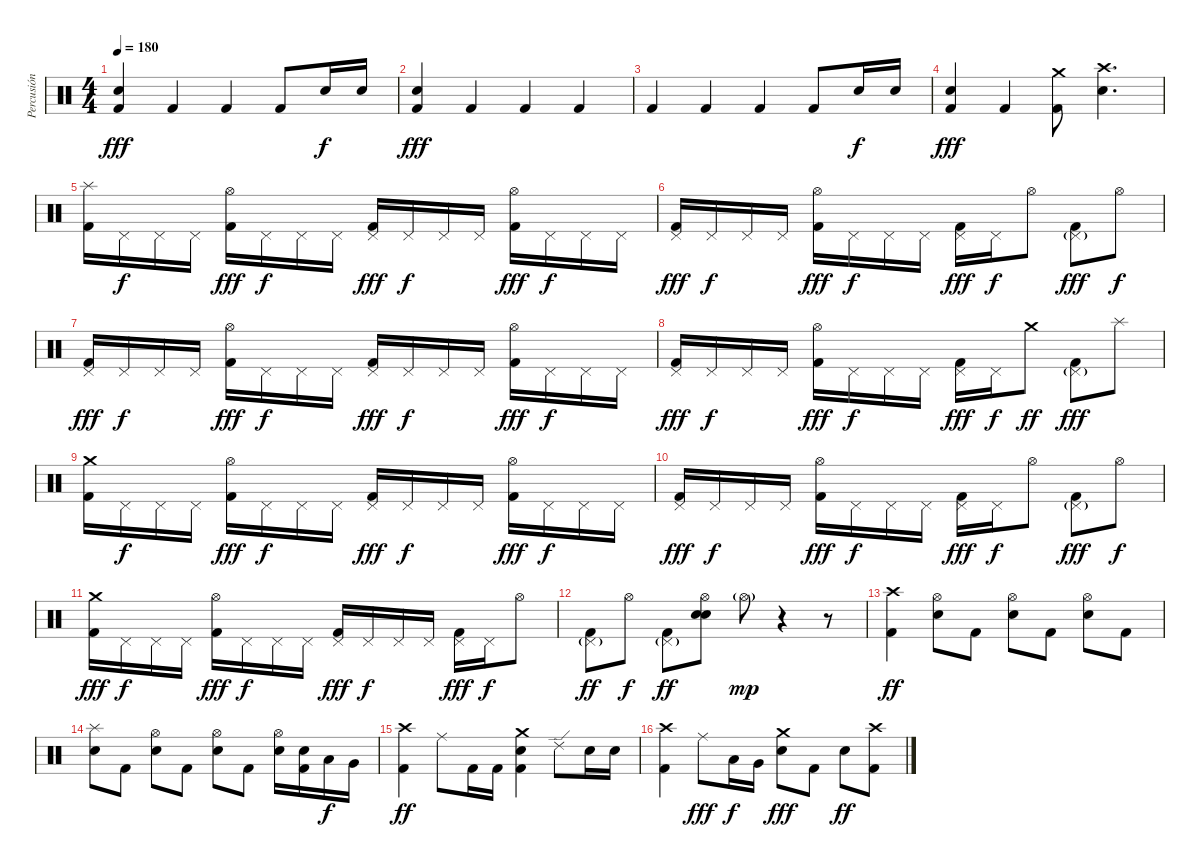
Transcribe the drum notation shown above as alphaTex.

\track ("Percusión" "Percusión") {instrument percussion}
\staff {score}
\articulation defaults
\ts (4 4)
\tempo 180
\clef neutral
\ks c
("Electric Snare (hit)" "Kick (hit) 2").4{dy fff} "Kick (hit) 2".4 "Kick (hit) 2".4 "Kick (hit) 2".8 "Electric Snare (hit)".16{dy f} "Electric Snare (hit)".16 |
("Electric Snare (hit)" "Kick (hit) 2").4{dy fff} "Kick (hit) 2".4 "Kick (hit) 2".4 "Kick (hit) 2".4 |
"Kick (hit) 2".4 "Kick (hit) 2".4 "Kick (hit) 2".4 "Kick (hit) 2".8 "Electric Snare (hit)".16{dy f} "Electric Snare (hit)".16 |
("Electric Snare (hit)" "Kick (hit) 2").4{dy fff} "Kick (hit) 2".4 ("Crash medium (hit)" "Kick (hit) 2").8 ("Crash high (hit)" "Electric Snare (hit)").4{d} |
("Splash (hit)" "Kick (hit) 2").16 "Pedal Hi-Hat (hit)".16{dy f} "Pedal Hi-Hat (hit)".16 "Pedal Hi-Hat (hit)".16 ("Hi-Hat (open)" "Kick (hit) 2").16{dy fff} "Pedal Hi-Hat (hit)".16{dy f} "Pedal Hi-Hat (hit)".16 "Pedal Hi-Hat (hit)".16 ("Pedal Hi-Hat (hit)" "Kick (hit) 2").16{dy fff} "Pedal Hi-Hat (hit)".16{dy f} "Pedal Hi-Hat (hit)".16 "Pedal Hi-Hat (hit)".16 ("Hi-Hat (open)" "Kick (hit) 2").16{dy fff} "Pedal Hi-Hat (hit)".16{dy f} "Pedal Hi-Hat (hit)".16 "Pedal Hi-Hat (hit)".16 |
("Pedal Hi-Hat (hit)" "Kick (hit) 2").16{dy fff} "Pedal Hi-Hat (hit)".16{dy f} "Pedal Hi-Hat (hit)".16 "Pedal Hi-Hat (hit)".16 ("Hi-Hat (open)" "Kick (hit) 2").16{dy fff} "Pedal Hi-Hat (hit)".16{dy f} "Pedal Hi-Hat (hit)".16 "Pedal Hi-Hat (hit)".16 ("Pedal Hi-Hat (hit)" "Kick (hit) 2").16{dy fff} "Pedal Hi-Hat (hit)".16{dy f} "Hi-Hat (open)".8 ("Pedal Hi-Hat (hit)"{g} "Kick (hit) 2").8{dy fff} "Hi-Hat (open)".8{dy f} |
("Pedal Hi-Hat (hit)" "Kick (hit) 2").16{dy fff} "Pedal Hi-Hat (hit)".16{dy f} "Pedal Hi-Hat (hit)".16 "Pedal Hi-Hat (hit)".16 ("Hi-Hat (open)" "Kick (hit) 2").16{dy fff} "Pedal Hi-Hat (hit)".16{dy f} "Pedal Hi-Hat (hit)".16 "Pedal Hi-Hat (hit)".16 ("Pedal Hi-Hat (hit)" "Kick (hit) 2").16{dy fff} "Pedal Hi-Hat (hit)".16{dy f} "Pedal Hi-Hat (hit)".16 "Pedal Hi-Hat (hit)".16 ("Hi-Hat (open)" "Kick (hit) 2").16{dy fff} "Pedal Hi-Hat (hit)".16{dy f} "Pedal Hi-Hat (hit)".16 "Pedal Hi-Hat (hit)".16 |
("Pedal Hi-Hat (hit)" "Kick (hit) 2").16{dy fff} "Pedal Hi-Hat (hit)".16{dy f} "Pedal Hi-Hat (hit)".16 "Pedal Hi-Hat (hit)".16 ("Hi-Hat (open)" "Kick (hit) 2").16{dy fff} "Pedal Hi-Hat (hit)".16{dy f} "Pedal Hi-Hat (hit)".16 "Pedal Hi-Hat (hit)".16 ("Pedal Hi-Hat (hit)" "Kick (hit) 2").16{dy fff} "Pedal Hi-Hat (hit)".16{dy f} "Crash medium (hit)".8{dy ff} ("Pedal Hi-Hat (hit)"{g} "Kick (hit) 2").8{dy fff} "Splash (hit)".8 |
("Crash medium (hit)" "Kick (hit) 2").16 "Pedal Hi-Hat (hit)".16{dy f} "Pedal Hi-Hat (hit)".16 "Pedal Hi-Hat (hit)".16 ("Hi-Hat (open)" "Kick (hit) 2").16{dy fff} "Pedal Hi-Hat (hit)".16{dy f} "Pedal Hi-Hat (hit)".16 "Pedal Hi-Hat (hit)".16 ("Pedal Hi-Hat (hit)" "Kick (hit) 2").16{dy fff} "Pedal Hi-Hat (hit)".16{dy f} "Pedal Hi-Hat (hit)".16 "Pedal Hi-Hat (hit)".16 ("Hi-Hat (open)" "Kick (hit) 2").16{dy fff} "Pedal Hi-Hat (hit)".16{dy f} "Pedal Hi-Hat (hit)".16 "Pedal Hi-Hat (hit)".16 |
("Pedal Hi-Hat (hit)" "Kick (hit) 2").16{dy fff} "Pedal Hi-Hat (hit)".16{dy f} "Pedal Hi-Hat (hit)".16 "Pedal Hi-Hat (hit)".16 ("Hi-Hat (open)" "Kick (hit) 2").16{dy fff} "Pedal Hi-Hat (hit)".16{dy f} "Pedal Hi-Hat (hit)".16 "Pedal Hi-Hat (hit)".16 ("Pedal Hi-Hat (hit)" "Kick (hit) 2").16{dy fff} "Pedal Hi-Hat (hit)".16{dy f} "Hi-Hat (open)".8 ("Pedal Hi-Hat (hit)"{g} "Kick (hit) 2").8{dy fff} "Hi-Hat (open)".8{dy f} |
("Crash medium (hit)" "Kick (hit) 2").16{dy fff} "Pedal Hi-Hat (hit)".16{dy f} "Pedal Hi-Hat (hit)".16 "Pedal Hi-Hat (hit)".16 ("Hi-Hat (open)" "Kick (hit) 2").16{dy fff} "Pedal Hi-Hat (hit)".16{dy f} "Pedal Hi-Hat (hit)".16 "Pedal Hi-Hat (hit)".16 ("Pedal Hi-Hat (hit)" "Kick (hit) 2").16{dy fff} "Pedal Hi-Hat (hit)".16{dy f} "Pedal Hi-Hat (hit)".16 "Pedal Hi-Hat (hit)".16 ("Pedal Hi-Hat (hit)" "Kick (hit) 2").16{dy fff} "Pedal Hi-Hat (hit)".16{dy f} "Hi-Hat (open)".8 |
("Pedal Hi-Hat (hit)"{g} "Kick (hit) 2").8{dy ff} "Hi-Hat (open)".8{dy f} ("Pedal Hi-Hat (hit)"{g} "Kick (hit) 2").8{dy ff} ("Hi-Hat (open)" "Electric Snare (hit)" "Electric Snare (hit)").8 "Hi-Hat (open)"{g}.8{dy mp} r.4 r.8 |
("Crash high (hit)" "Kick (hit) 2").4{dy ff} ("Hi-Hat (open)" "Electric Snare (hit)").8 "Kick (hit) 2".8 ("Hi-Hat (open)" "Electric Snare (hit)").8 "Kick (hit) 2".8 ("Hi-Hat (open)" "Electric Snare (hit)").8 "Kick (hit) 2".8 |
("Splash (hit)" "Electric Snare (hit)").8 "Kick (hit) 2".8 ("Hi-Hat (open)" "Electric Snare (hit)").8 "Kick (hit) 2".8 ("Hi-Hat (open)" "Electric Snare (hit)").8 "Kick (hit) 2".8 ("Hi-Hat (open)" "Electric Snare (hit)").16 ("Electric Snare (hit)" "Kick (hit) 2").16 "Low Tom (hit)".16{dy f} "Very Low Tom (hit)".16 |
("Crash high (hit)" "Kick (hit) 2").4{dy ff} "Ride (middle)".8 "Kick (hit) 2".16 "Kick (hit) 2".16 ("Crash medium (hit)" "Electric Snare (hit)" "Kick (hit) 2").4 "Ride (edge) 2".8 "Electric Snare (hit)".16 "Electric Snare (hit)".16 |
("Crash high (hit)" "Kick (hit) 2").4 "Ride (middle)".8{dy fff} "Low Tom (hit)".16{dy f} "Very Low Tom (hit)".16 ("Crash medium (hit)" "Electric Snare (hit)").8{dy fff} "Kick (hit) 2".8 "Electric Snare (hit)".8{dy ff} ("Crash high (hit)" "Kick (hit) 2").8
